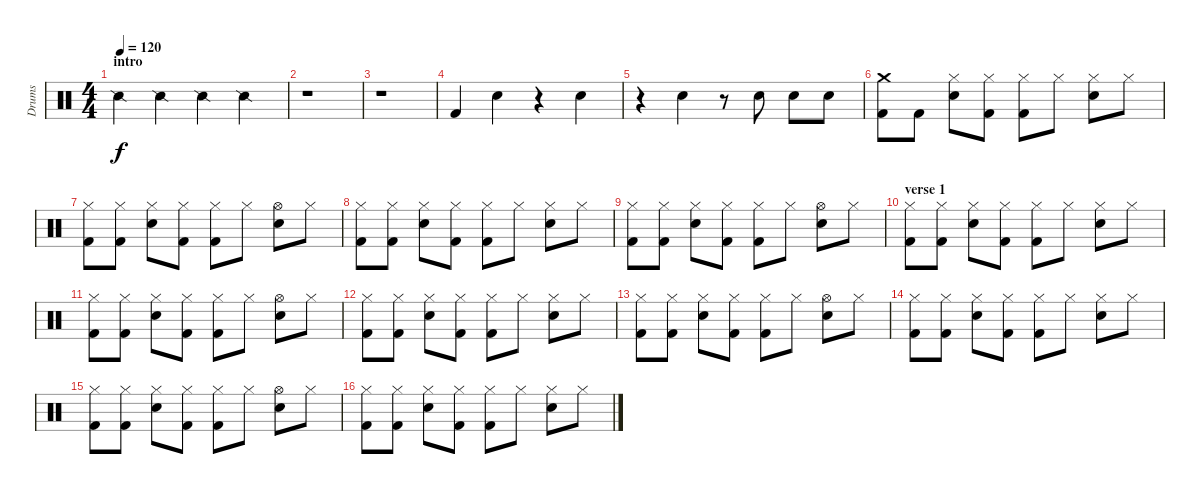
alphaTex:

\track ("Drums " "Drums ") {instrument percussion}
\staff {score}
\articulation defaults
\ts (4 4)
\section ("" "intro")
\tempo 120
\clef neutral
\ks c "Snare (side stick) 2".4{dy f} "Snare (side stick) 2".4 "Snare (side stick) 2".4 "Snare (side stick) 2".4
|
r.1 |
r.1 |
"Kick (hit) 2".4 "Electric Snare (hit)".4 r.4 "Electric Snare (hit)".4 |
r.4 "Electric Snare (hit)".4 r.8 "Electric Snare (hit)".8 "Electric Snare (hit)".8 "Electric Snare (hit)".8 |
("Crash medium (hit)" "Kick (hit) 2").8 "Kick (hit) 2".8 ("Hi-Hat (closed)" "Electric Snare (hit)").8 ("Hi-Hat (closed)" "Kick (hit) 2").8 ("Kick (hit) 2" "Hi-Hat (closed)").8 "Hi-Hat (closed)".8 ("Electric Snare (hit)" "Hi-Hat (closed)").8 "Hi-Hat (closed)".8 |
("Kick (hit) 2" "Hi-Hat (closed)").8 ("Kick (hit) 2" "Hi-Hat (closed)").8 ("Electric Snare (hit)" "Hi-Hat (closed)").8 ("Kick (hit) 2" "Hi-Hat (closed)").8 ("Kick (hit) 2" "Hi-Hat (closed)").8 "Hi-Hat (closed)".8 ("Electric Snare (hit)" "Hi-Hat (open)").8 "Hi-Hat (closed)".8 |
("Kick (hit) 2" "Hi-Hat (closed)").8 ("Kick (hit) 2" "Hi-Hat (closed)").8 ("Electric Snare (hit)" "Hi-Hat (closed)").8 ("Kick (hit) 2" "Hi-Hat (closed)").8 ("Kick (hit) 2" "Hi-Hat (closed)").8 "Hi-Hat (closed)".8 ("Electric Snare (hit)" "Hi-Hat (closed)").8 "Hi-Hat (closed)".8 |
("Kick (hit) 2" "Hi-Hat (closed)").8 ("Kick (hit) 2" "Hi-Hat (closed)").8 ("Electric Snare (hit)" "Hi-Hat (closed)").8 ("Kick (hit) 2" "Hi-Hat (closed)").8 ("Kick (hit) 2" "Hi-Hat (closed)").8 "Hi-Hat (closed)".8 ("Electric Snare (hit)" "Hi-Hat (open)").8 "Hi-Hat (closed)".8 |
\section ("" "verse 1")
("Kick (hit) 2" "Hi-Hat (closed)").8 ("Kick (hit) 2" "Hi-Hat (closed)").8 ("Electric Snare (hit)" "Hi-Hat (closed)").8 ("Kick (hit) 2" "Hi-Hat (closed)").8 ("Kick (hit) 2" "Hi-Hat (closed)").8 "Hi-Hat (closed)".8 ("Electric Snare (hit)" "Hi-Hat (closed)").8 "Hi-Hat (closed)".8 |
("Kick (hit) 2" "Hi-Hat (closed)").8 ("Kick (hit) 2" "Hi-Hat (closed)").8 ("Electric Snare (hit)" "Hi-Hat (closed)").8 ("Kick (hit) 2" "Hi-Hat (closed)").8 ("Kick (hit) 2" "Hi-Hat (closed)").8 "Hi-Hat (closed)".8 ("Electric Snare (hit)" "Hi-Hat (open)").8 "Hi-Hat (closed)".8 |
("Hi-Hat (closed)" "Kick (hit) 2").8 ("Kick (hit) 2" "Hi-Hat (closed)").8 ("Electric Snare (hit)" "Hi-Hat (closed)").8 ("Kick (hit) 2" "Hi-Hat (closed)").8 ("Kick (hit) 2" "Hi-Hat (closed)").8 "Hi-Hat (closed)".8 ("Electric Snare (hit)" "Hi-Hat (closed)").8 "Hi-Hat (closed)".8 |
("Kick (hit) 2" "Hi-Hat (closed)").8 ("Kick (hit) 2" "Hi-Hat (closed)").8 ("Electric Snare (hit)" "Hi-Hat (closed)").8 ("Kick (hit) 2" "Hi-Hat (closed)").8 ("Kick (hit) 2" "Hi-Hat (closed)").8 "Hi-Hat (closed)".8 ("Electric Snare (hit)" "Hi-Hat (open)").8 "Hi-Hat (closed)".8 |
("Kick (hit) 2" "Hi-Hat (closed)").8 ("Kick (hit) 2" "Hi-Hat (closed)").8 ("Electric Snare (hit)" "Hi-Hat (closed)").8 ("Kick (hit) 2" "Hi-Hat (closed)").8 ("Kick (hit) 2" "Hi-Hat (closed)").8 "Hi-Hat (closed)".8 ("Electric Snare (hit)" "Hi-Hat (closed)").8 "Hi-Hat (closed)".8 |
("Kick (hit) 2" "Hi-Hat (closed)").8 ("Kick (hit) 2" "Hi-Hat (closed)").8 ("Electric Snare (hit)" "Hi-Hat (closed)").8 ("Kick (hit) 2" "Hi-Hat (closed)").8 ("Kick (hit) 2" "Hi-Hat (closed)").8 "Hi-Hat (closed)".8 ("Electric Snare (hit)" "Hi-Hat (open)").8 "Hi-Hat (closed)".8 |
("Kick (hit) 2" "Hi-Hat (closed)").8 ("Kick (hit) 2" "Hi-Hat (closed)").8 ("Electric Snare (hit)" "Hi-Hat (closed)").8 ("Kick (hit) 2" "Hi-Hat (closed)").8 ("Kick (hit) 2" "Hi-Hat (closed)").8 "Hi-Hat (closed)".8 ("Electric Snare (hit)" "Hi-Hat (closed)").8 "Hi-Hat (closed)".8
